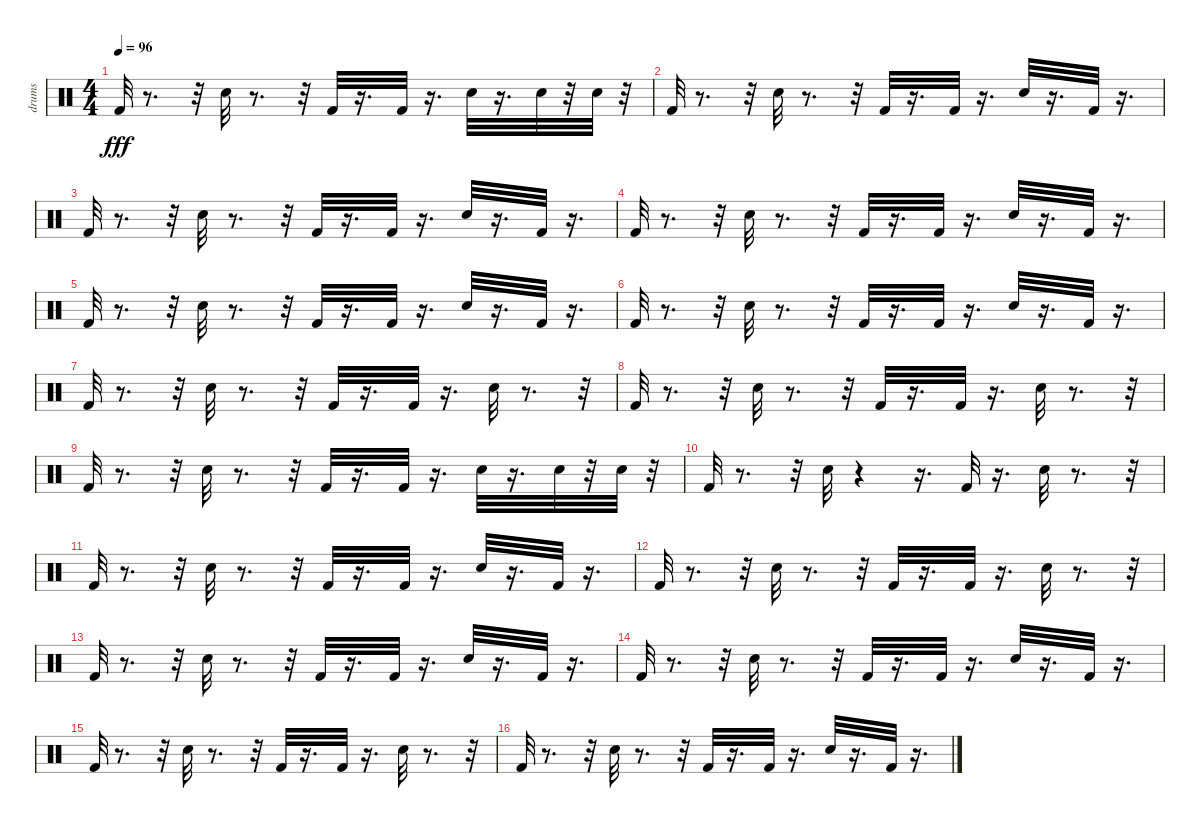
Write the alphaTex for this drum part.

\track ("drums" "drums") {instrument percussion}
\staff {score}
\articulation defaults
\ts (4 4)
\tempo 96
\clef neutral
\ks c "Kick (hit) 2".32{dy fff}
r.8{d} r.32 "Electric Snare (hit)".32 r.8{d} r.32 "Kick (hit) 2".32 r.16{d} "Kick (hit) 2".32 r.16{d} "Electric Snare (hit)".32 r.16{d} "Electric Snare (hit)".32 r.32 "Electric Snare (hit)".32 r.32 |
"Kick (hit) 2".32 r.8{d} r.32 "Electric Snare (hit)".32 r.8{d} r.32 "Kick (hit) 2".32 r.16{d} "Kick (hit) 2".32 r.16{d} "Electric Snare (hit)".32 r.16{d} "Kick (hit) 2".32 r.16{d} |
"Kick (hit) 2".32 r.8{d} r.32 "Electric Snare (hit)".32 r.8{d} r.32 "Kick (hit) 2".32 r.16{d} "Kick (hit) 2".32 r.16{d} "Electric Snare (hit)".32 r.16{d} "Kick (hit) 2".32 r.16{d} |
"Kick (hit) 2".32 r.8{d} r.32 "Electric Snare (hit)".32 r.8{d} r.32 "Kick (hit) 2".32 r.16{d} "Kick (hit) 2".32 r.16{d} "Electric Snare (hit)".32 r.16{d} "Kick (hit) 2".32 r.16{d} |
"Kick (hit) 2".32 r.8{d} r.32 "Electric Snare (hit)".32 r.8{d} r.32 "Kick (hit) 2".32 r.16{d} "Kick (hit) 2".32 r.16{d} "Electric Snare (hit)".32 r.16{d} "Kick (hit) 2".32 r.16{d} |
"Kick (hit) 2".32 r.8{d} r.32 "Electric Snare (hit)".32 r.8{d} r.32 "Kick (hit) 2".32 r.16{d} "Kick (hit) 2".32 r.16{d} "Electric Snare (hit)".32 r.16{d} "Kick (hit) 2".32 r.16{d} |
"Kick (hit) 2".32 r.8{d} r.32 "Electric Snare (hit)".32 r.8{d} r.32 "Kick (hit) 2".32 r.16{d} "Kick (hit) 2".32 r.16{d} "Electric Snare (hit)".32 r.8{d} r.32 |
"Kick (hit) 2".32 r.8{d} r.32 "Electric Snare (hit)".32 r.8{d} r.32 "Kick (hit) 2".32 r.16{d} "Kick (hit) 2".32 r.16{d} "Electric Snare (hit)".32 r.8{d} r.32 |
"Kick (hit) 2".32 r.8{d} r.32 "Electric Snare (hit)".32 r.8{d} r.32 "Kick (hit) 2".32 r.16{d} "Kick (hit) 2".32 r.16{d} "Electric Snare (hit)".32 r.16{d} "Electric Snare (hit)".32 r.32 "Electric Snare (hit)".32 r.32 |
"Kick (hit) 2".32 r.8{d} r.32 "Electric Snare (hit)".32 r.4 r.16{d} "Kick (hit) 2".32 r.16{d} "Electric Snare (hit)".32 r.8{d} r.32 |
"Kick (hit) 2".32 r.8{d} r.32 "Electric Snare (hit)".32 r.8{d} r.32 "Kick (hit) 2".32 r.16{d} "Kick (hit) 2".32 r.16{d} "Electric Snare (hit)".32 r.16{d} "Kick (hit) 2".32 r.16{d} |
"Kick (hit) 2".32 r.8{d} r.32 "Electric Snare (hit)".32 r.8{d} r.32 "Kick (hit) 2".32 r.16{d} "Kick (hit) 2".32 r.16{d} "Electric Snare (hit)".32 r.8{d} r.32 |
"Kick (hit) 2".32 r.8{d} r.32 "Electric Snare (hit)".32 r.8{d} r.32 "Kick (hit) 2".32 r.16{d} "Kick (hit) 2".32 r.16{d} "Electric Snare (hit)".32 r.16{d} "Kick (hit) 2".32 r.16{d} |
"Kick (hit) 2".32 r.8{d} r.32 "Electric Snare (hit)".32 r.8{d} r.32 "Kick (hit) 2".32 r.16{d} "Kick (hit) 2".32 r.16{d} "Electric Snare (hit)".32 r.16{d} "Kick (hit) 2".32 r.16{d} |
"Kick (hit) 2".32 r.8{d} r.32 "Electric Snare (hit)".32 r.8{d} r.32 "Kick (hit) 2".32 r.16{d} "Kick (hit) 2".32 r.16{d} "Electric Snare (hit)".32 r.8{d} r.32 |
"Kick (hit) 2".32 r.8{d} r.32 "Electric Snare (hit)".32 r.8{d} r.32 "Kick (hit) 2".32 r.16{d} "Kick (hit) 2".32 r.16{d} "Electric Snare (hit)".32 r.16{d} "Kick (hit) 2".32 r.16{d}
